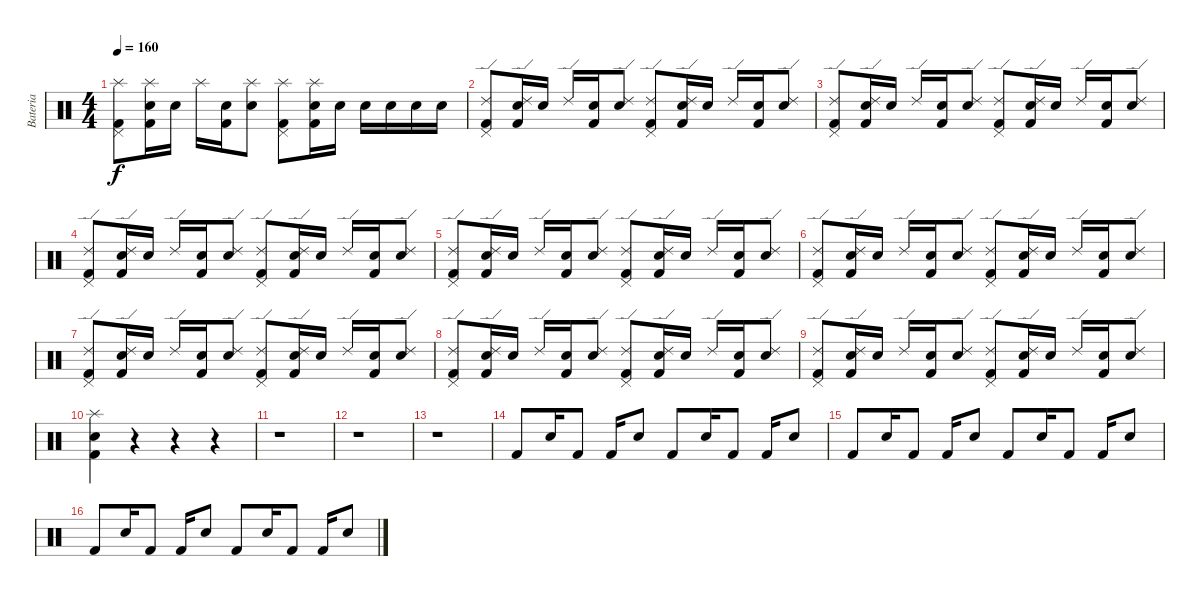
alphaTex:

\track ("Bateria" "Bateria") {instrument percussion}
\staff {score}
\articulation defaults
\ts (4 4)
\tempo 160
\clef neutral
\ks c
("Splash (hit)" "Pedal Hi-Hat (hit)" "Kick (hit) 2").8{dy f} ("Splash (hit)" "Snare (hit) 2" "Kick (hit) 2").16 "Snare (hit) 2".16 "Splash (hit)".16 ("Snare (hit) 2" "Kick (hit) 2").16 ("Splash (hit)" "Snare (hit) 2").8 ("Splash (hit)" "Pedal Hi-Hat (hit)" "Kick (hit) 2").8 ("Splash (hit)" "Snare (hit) 2" "Kick (hit) 2").16 "Snare (hit) 2".16 "Snare (hit) 2".16 "Snare (hit) 2".16 "Snare (hit) 2".16 "Snare (hit) 2".16 |
("Ride (edge) 2" "Pedal Hi-Hat (hit)" "Kick (hit) 2").8 ("Ride (edge) 2" "Snare (hit) 2" "Kick (hit) 2").16 "Snare (hit) 2".16 "Ride (edge) 2".16 ("Snare (hit) 2" "Kick (hit) 2").16 ("Ride (edge) 2" "Snare (hit) 2").8 ("Ride (edge) 2" "Pedal Hi-Hat (hit)" "Kick (hit) 2").8 ("Ride (edge) 2" "Snare (hit) 2" "Kick (hit) 2").16 "Snare (hit) 2".16 "Ride (edge) 2".16 ("Snare (hit) 2" "Kick (hit) 2").16 ("Ride (edge) 2" "Snare (hit) 2").8 |
("Ride (edge) 2" "Pedal Hi-Hat (hit)" "Kick (hit) 2").8 ("Ride (edge) 2" "Snare (hit) 2" "Kick (hit) 2").16 "Snare (hit) 2".16 "Ride (edge) 2".16 ("Snare (hit) 2" "Kick (hit) 2").16 ("Ride (edge) 2" "Snare (hit) 2").8 ("Ride (edge) 2" "Pedal Hi-Hat (hit)" "Kick (hit) 2").8 ("Ride (edge) 2" "Snare (hit) 2" "Kick (hit) 2").16 "Snare (hit) 2".16 "Ride (edge) 2".16 ("Snare (hit) 2" "Kick (hit) 2").16 ("Ride (edge) 2" "Snare (hit) 2").8 |
("Ride (edge) 2" "Pedal Hi-Hat (hit)" "Kick (hit) 2").8 ("Ride (edge) 2" "Snare (hit) 2" "Kick (hit) 2").16 "Snare (hit) 2".16 "Ride (edge) 2".16 ("Snare (hit) 2" "Kick (hit) 2").16 ("Ride (edge) 2" "Snare (hit) 2").8 ("Ride (edge) 2" "Pedal Hi-Hat (hit)" "Kick (hit) 2").8 ("Ride (edge) 2" "Snare (hit) 2" "Kick (hit) 2").16 "Snare (hit) 2".16 "Ride (edge) 2".16 ("Snare (hit) 2" "Kick (hit) 2").16 ("Ride (edge) 2" "Snare (hit) 2").8 |
("Ride (edge) 2" "Pedal Hi-Hat (hit)" "Kick (hit) 2").8 ("Ride (edge) 2" "Snare (hit) 2" "Kick (hit) 2").16 "Snare (hit) 2".16 "Ride (edge) 2".16 ("Snare (hit) 2" "Kick (hit) 2").16 ("Ride (edge) 2" "Snare (hit) 2").8 ("Ride (edge) 2" "Pedal Hi-Hat (hit)" "Kick (hit) 2").8 ("Ride (edge) 2" "Snare (hit) 2" "Kick (hit) 2").16 "Snare (hit) 2".16 "Ride (edge) 2".16 ("Snare (hit) 2" "Kick (hit) 2").16 ("Ride (edge) 2" "Snare (hit) 2").8 |
("Ride (edge) 2" "Pedal Hi-Hat (hit)" "Kick (hit) 2").8 ("Ride (edge) 2" "Snare (hit) 2" "Kick (hit) 2").16 "Snare (hit) 2".16 "Ride (edge) 2".16 ("Snare (hit) 2" "Kick (hit) 2").16 ("Ride (edge) 2" "Snare (hit) 2").8 ("Ride (edge) 2" "Pedal Hi-Hat (hit)" "Kick (hit) 2").8 ("Ride (edge) 2" "Snare (hit) 2" "Kick (hit) 2").16 "Snare (hit) 2".16 "Ride (edge) 2".16 ("Snare (hit) 2" "Kick (hit) 2").16 ("Ride (edge) 2" "Snare (hit) 2").8 |
("Ride (edge) 2" "Pedal Hi-Hat (hit)" "Kick (hit) 2").8 ("Ride (edge) 2" "Snare (hit) 2" "Kick (hit) 2").16 "Snare (hit) 2".16 "Ride (edge) 2".16 ("Snare (hit) 2" "Kick (hit) 2").16 ("Ride (edge) 2" "Snare (hit) 2").8 ("Ride (edge) 2" "Pedal Hi-Hat (hit)" "Kick (hit) 2").8 ("Ride (edge) 2" "Snare (hit) 2" "Kick (hit) 2").16 "Snare (hit) 2".16 "Ride (edge) 2".16 ("Snare (hit) 2" "Kick (hit) 2").16 ("Ride (edge) 2" "Snare (hit) 2").8 |
("Ride (edge) 2" "Pedal Hi-Hat (hit)" "Kick (hit) 2").8 ("Ride (edge) 2" "Snare (hit) 2" "Kick (hit) 2").16 "Snare (hit) 2".16 "Ride (edge) 2".16 ("Snare (hit) 2" "Kick (hit) 2").16 ("Ride (edge) 2" "Snare (hit) 2").8 ("Ride (edge) 2" "Pedal Hi-Hat (hit)" "Kick (hit) 2").8 ("Ride (edge) 2" "Snare (hit) 2" "Kick (hit) 2").16 "Snare (hit) 2".16 "Ride (edge) 2".16 ("Snare (hit) 2" "Kick (hit) 2").16 ("Ride (edge) 2" "Snare (hit) 2").8 |
("Ride (edge) 2" "Pedal Hi-Hat (hit)" "Kick (hit) 2").8 ("Ride (edge) 2" "Snare (hit) 2" "Kick (hit) 2").16 "Snare (hit) 2".16 "Ride (edge) 2".16 ("Snare (hit) 2" "Kick (hit) 2").16 ("Ride (edge) 2" "Snare (hit) 2").8 ("Ride (edge) 2" "Pedal Hi-Hat (hit)" "Kick (hit) 2").8 ("Ride (edge) 2" "Snare (hit) 2" "Kick (hit) 2").16 "Snare (hit) 2".16 "Ride (edge) 2".16 ("Snare (hit) 2" "Kick (hit) 2").16 ("Ride (edge) 2" "Snare (hit) 2").8 |
("Kick (hit) 2" "Snare (hit) 2" "Splash (hit)").4 r.4 r.4 r.4 |
r.1 |
r.1 |
r.1 |
"Kick (hit) 2".8 "Snare (hit) 2".16 "Kick (hit) 2".8 "Kick (hit) 2".16 "Snare (hit) 2".8 "Kick (hit) 2".8 "Snare (hit) 2".16 "Kick (hit) 2".8 "Kick (hit) 2".16 "Snare (hit) 2".8 |
"Kick (hit) 2".8 "Snare (hit) 2".16 "Kick (hit) 2".8 "Kick (hit) 2".16 "Snare (hit) 2".8 "Kick (hit) 2".8 "Snare (hit) 2".16 "Kick (hit) 2".8 "Kick (hit) 2".16 "Snare (hit) 2".8 |
"Kick (hit) 2".8 "Snare (hit) 2".16 "Kick (hit) 2".8 "Kick (hit) 2".16 "Snare (hit) 2".8 "Kick (hit) 2".8 "Snare (hit) 2".16 "Kick (hit) 2".8 "Kick (hit) 2".16 "Snare (hit) 2".8
